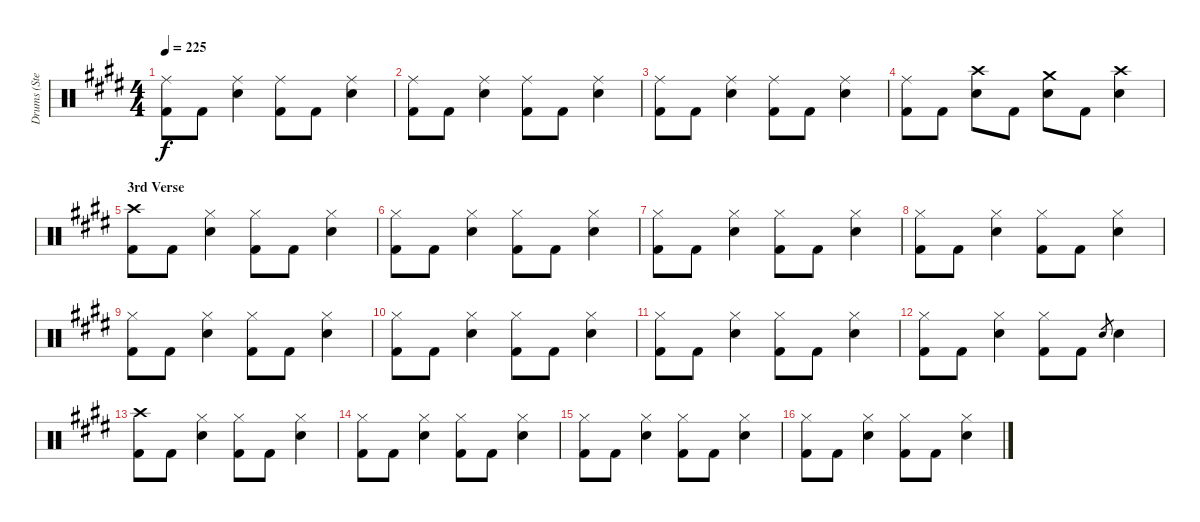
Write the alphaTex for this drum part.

\track ("Drums (Steven)" "Drums (Ste") {instrument percussion}
\staff {score}
\articulation defaults
\ts (4 4)
\tempo 225
\clef neutral
\ks e
("Ride (middle)" "Kick (hit) 2").8{dy f} "Kick (hit) 2".8 ("Ride (middle)" "Snare (hit) 2").4 ("Ride (middle)" "Kick (hit) 2").8 "Kick (hit) 2".8 ("Ride (middle)" "Snare (hit) 2").4 |
("Ride (middle)" "Kick (hit) 2").8 "Kick (hit) 2".8 ("Ride (middle)" "Snare (hit) 2").4 ("Ride (middle)" "Kick (hit) 2").8 "Kick (hit) 2".8 ("Ride (middle)" "Snare (hit) 2").4 |
("Ride (middle)" "Kick (hit) 2").8 "Kick (hit) 2".8 ("Ride (middle)" "Snare (hit) 2").4 ("Ride (middle)" "Kick (hit) 2").8 "Kick (hit) 2".8 ("Ride (middle)" "Snare (hit) 2").4 |
("Ride (middle)" "Kick (hit) 2").8 "Kick (hit) 2".8 ("Crash high (hit)" "Snare (hit) 2").8 "Kick (hit) 2".8 ("Crash medium (hit)" "Snare (hit) 2").8 "Kick (hit) 2".8 ("Crash high (hit)" "Snare (hit) 2").4 |
\section ("" "3rd Verse")
("Crash high (hit)" "Kick (hit) 2").8 "Kick (hit) 2".8 ("Hi-Hat (closed)" "Snare (hit) 2").4 ("Hi-Hat (closed)" "Kick (hit) 2").8 "Kick (hit) 2".8 ("Hi-Hat (closed)" "Snare (hit) 2").4 |
("Hi-Hat (closed)" "Kick (hit) 2").8 "Kick (hit) 2".8 ("Hi-Hat (closed)" "Snare (hit) 2").4 ("Hi-Hat (closed)" "Kick (hit) 2").8 "Kick (hit) 2".8 ("Hi-Hat (closed)" "Snare (hit) 2").4 |
("Hi-Hat (closed)" "Kick (hit) 2").8 "Kick (hit) 2".8 ("Hi-Hat (closed)" "Snare (hit) 2").4 ("Hi-Hat (closed)" "Kick (hit) 2").8 "Kick (hit) 2".8 ("Hi-Hat (closed)" "Snare (hit) 2").4 |
("Hi-Hat (closed)" "Kick (hit) 2").8 "Kick (hit) 2".8 ("Hi-Hat (closed)" "Snare (hit) 2").4 ("Hi-Hat (closed)" "Kick (hit) 2").8 "Kick (hit) 2".8 ("Hi-Hat (closed)" "Snare (hit) 2").4 |
("Hi-Hat (closed)" "Kick (hit) 2").8 "Kick (hit) 2".8 ("Hi-Hat (closed)" "Snare (hit) 2").4 ("Hi-Hat (closed)" "Kick (hit) 2").8 "Kick (hit) 2".8 ("Hi-Hat (closed)" "Snare (hit) 2").4 |
("Hi-Hat (closed)" "Kick (hit) 2").8 "Kick (hit) 2".8 ("Hi-Hat (closed)" "Snare (hit) 2").4 ("Hi-Hat (closed)" "Kick (hit) 2").8 "Kick (hit) 2".8 ("Hi-Hat (closed)" "Snare (hit) 2").4 |
("Hi-Hat (closed)" "Kick (hit) 2").8 "Kick (hit) 2".8 ("Hi-Hat (closed)" "Snare (hit) 2").4 ("Hi-Hat (closed)" "Kick (hit) 2").8 "Kick (hit) 2".8 ("Hi-Hat (closed)" "Snare (hit) 2").4 |
("Hi-Hat (closed)" "Kick (hit) 2").8 "Kick (hit) 2".8 ("Hi-Hat (closed)" "Snare (hit) 2").4 ("Hi-Hat (closed)" "Kick (hit) 2").8 "Kick (hit) 2".8 "Snare (hit) 2".8{gr} "Snare (hit) 2".4 |
("Crash high (hit)" "Kick (hit) 2").8 "Kick (hit) 2".8 ("Hi-Hat (closed)" "Snare (hit) 2").4 ("Hi-Hat (closed)" "Kick (hit) 2").8 "Kick (hit) 2".8 ("Hi-Hat (closed)" "Snare (hit) 2").4 |
("Hi-Hat (closed)" "Kick (hit) 2").8 "Kick (hit) 2".8 ("Hi-Hat (closed)" "Snare (hit) 2").4 ("Hi-Hat (closed)" "Kick (hit) 2").8 "Kick (hit) 2".8 ("Hi-Hat (closed)" "Snare (hit) 2").4 |
("Hi-Hat (closed)" "Kick (hit) 2").8 "Kick (hit) 2".8 ("Hi-Hat (closed)" "Snare (hit) 2").4 ("Hi-Hat (closed)" "Kick (hit) 2").8 "Kick (hit) 2".8 ("Hi-Hat (closed)" "Snare (hit) 2").4 |
("Hi-Hat (closed)" "Kick (hit) 2").8 "Kick (hit) 2".8 ("Hi-Hat (closed)" "Snare (hit) 2").4 ("Hi-Hat (closed)" "Kick (hit) 2").8 "Kick (hit) 2".8 ("Hi-Hat (closed)" "Snare (hit) 2").4
